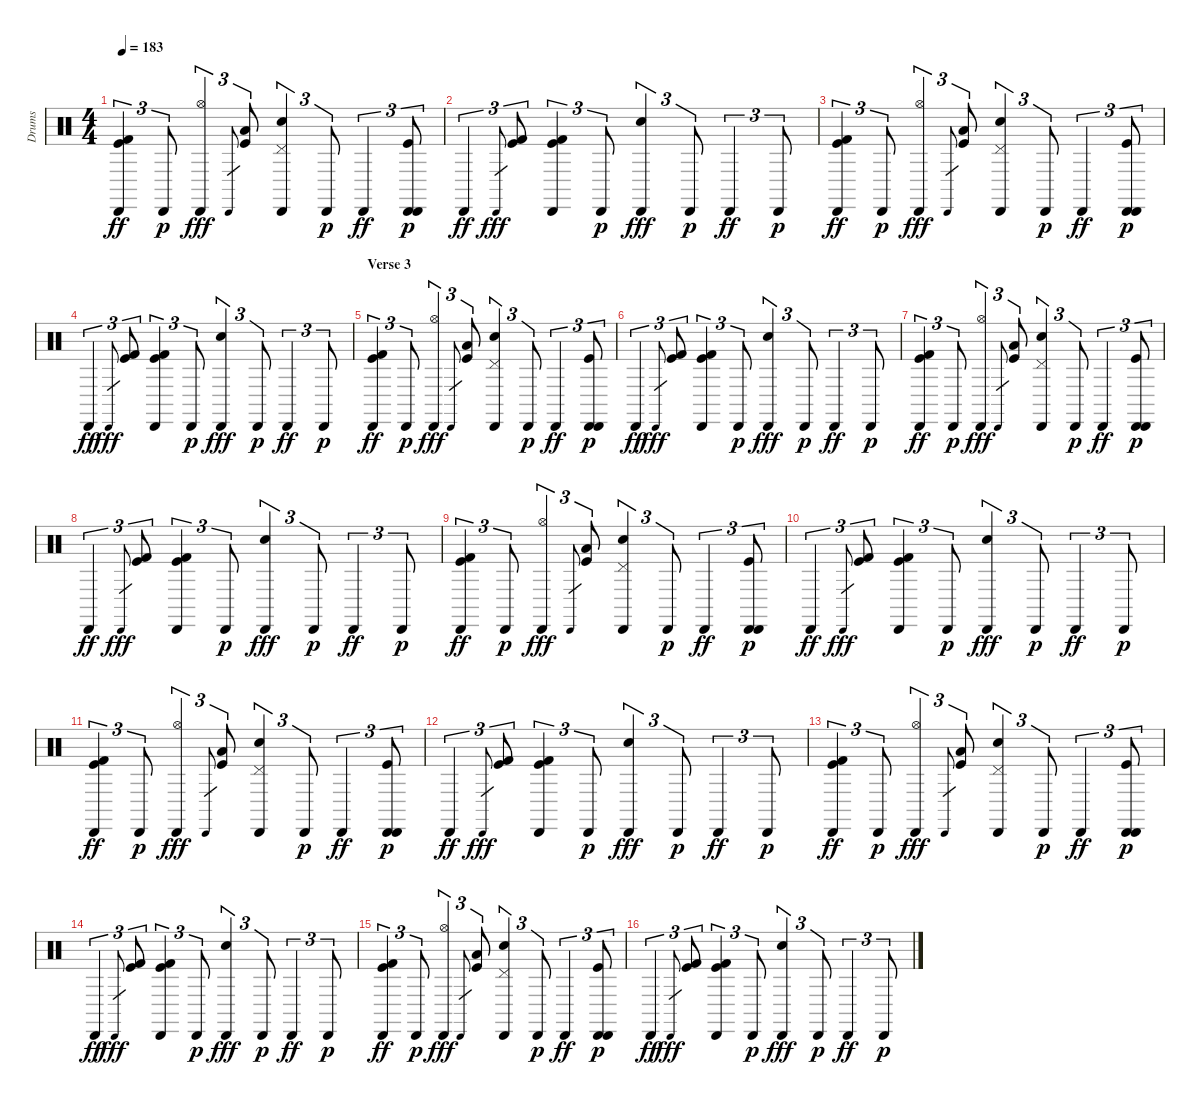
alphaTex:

\track ("Drums" "Drums") {instrument percussion}
\staff {score}
\articulation defaults
\ts (4 4)
\tempo 183
\clef neutral
\ks c
("Kick (hit) 2" "Kick (hit)" "Cabasa (hit)").4{tu (3 2) dy ff} "Cabasa (hit)".8{tu (3 2) dy p} ("Cabasa (hit)" "Hi-Hat (open)").4{tu (3 2) dy fff} "Cabasa (hit)".8{gr} ("Kick (hit)" "Low Floor Tom (hit)").8{tu (3 2)} ("Cabasa (hit)" "Electric Snare (hit)" "Pedal Hi-Hat (hit)").4{tu (3 2)} "Cabasa (hit)".8{tu (3 2) dy p} "Cabasa (hit)".4{tu (3 2) dy ff} ("Cabasa (hit)" "Kick (hit)" "Cabasa (hit)").8{tu (3 2) dy p} |
"Cabasa (hit)".4{tu (3 2) dy ff} "Cabasa (hit)".8{gr dy fff} ("Kick (hit)" "Kick (hit) 2").8{tu (3 2)} ("Cabasa (hit)" "Kick (hit)" "Kick (hit) 2").4{tu (3 2)} "Cabasa (hit)".8{tu (3 2) dy p} ("Cabasa (hit)" "Electric Snare (hit)").4{tu (3 2) dy fff} "Cabasa (hit)".8{tu (3 2) dy p} "Cabasa (hit)".4{tu (3 2) dy ff} "Cabasa (hit)".8{tu (3 2) dy p} |
("Kick (hit) 2" "Kick (hit)" "Cabasa (hit)").4{tu (3 2) dy ff} "Cabasa (hit)".8{tu (3 2) dy p} ("Cabasa (hit)" "Hi-Hat (open)").4{tu (3 2) dy fff} "Cabasa (hit)".8{gr} ("Kick (hit)" "Low Floor Tom (hit)").8{tu (3 2)} ("Cabasa (hit)" "Electric Snare (hit)" "Pedal Hi-Hat (hit)").4{tu (3 2)} "Cabasa (hit)".8{tu (3 2) dy p} "Cabasa (hit)".4{tu (3 2) dy ff} ("Cabasa (hit)" "Kick (hit)" "Cabasa (hit)").8{tu (3 2) dy p} |
"Cabasa (hit)".4{tu (3 2) dy ff} "Cabasa (hit)".8{gr dy fff} ("Kick (hit)" "Kick (hit) 2").8{tu (3 2)} ("Cabasa (hit)" "Kick (hit)" "Kick (hit) 2").4{tu (3 2)} "Cabasa (hit)".8{tu (3 2) dy p} ("Cabasa (hit)" "Electric Snare (hit)").4{tu (3 2) dy fff} "Cabasa (hit)".8{tu (3 2) dy p} "Cabasa (hit)".4{tu (3 2) dy ff} "Cabasa (hit)".8{tu (3 2) dy p} |
\section ("" "Verse 3")
("Kick (hit) 2" "Kick (hit)" "Cabasa (hit)").4{tu (3 2) dy ff} "Cabasa (hit)".8{tu (3 2) dy p} ("Cabasa (hit)" "Hi-Hat (open)").4{tu (3 2) dy fff} "Cabasa (hit)".8{gr} ("Kick (hit)" "Low Floor Tom (hit)").8{tu (3 2)} ("Cabasa (hit)" "Electric Snare (hit)" "Pedal Hi-Hat (hit)").4{tu (3 2)} "Cabasa (hit)".8{tu (3 2) dy p} "Cabasa (hit)".4{tu (3 2) dy ff} ("Cabasa (hit)" "Kick (hit)" "Cabasa (hit)").8{tu (3 2) dy p} |
"Cabasa (hit)".4{tu (3 2) dy ff} "Cabasa (hit)".8{gr dy fff} ("Kick (hit)" "Kick (hit) 2").8{tu (3 2)} ("Cabasa (hit)" "Kick (hit)" "Kick (hit) 2").4{tu (3 2)} "Cabasa (hit)".8{tu (3 2) dy p} ("Cabasa (hit)" "Electric Snare (hit)").4{tu (3 2) dy fff} "Cabasa (hit)".8{tu (3 2) dy p} "Cabasa (hit)".4{tu (3 2) dy ff} "Cabasa (hit)".8{tu (3 2) dy p} |
("Kick (hit) 2" "Kick (hit)" "Cabasa (hit)").4{tu (3 2) dy ff} "Cabasa (hit)".8{tu (3 2) dy p} ("Cabasa (hit)" "Hi-Hat (open)").4{tu (3 2) dy fff} "Cabasa (hit)".8{gr} ("Kick (hit)" "Low Floor Tom (hit)").8{tu (3 2)} ("Cabasa (hit)" "Electric Snare (hit)" "Pedal Hi-Hat (hit)").4{tu (3 2)} "Cabasa (hit)".8{tu (3 2) dy p} "Cabasa (hit)".4{tu (3 2) dy ff} ("Cabasa (hit)" "Kick (hit)" "Cabasa (hit)").8{tu (3 2) dy p} |
"Cabasa (hit)".4{tu (3 2) dy ff} "Cabasa (hit)".8{gr dy fff} ("Kick (hit)" "Kick (hit) 2").8{tu (3 2)} ("Cabasa (hit)" "Kick (hit)" "Kick (hit) 2").4{tu (3 2)} "Cabasa (hit)".8{tu (3 2) dy p} ("Cabasa (hit)" "Electric Snare (hit)").4{tu (3 2) dy fff} "Cabasa (hit)".8{tu (3 2) dy p} "Cabasa (hit)".4{tu (3 2) dy ff} "Cabasa (hit)".8{tu (3 2) dy p} |
("Kick (hit) 2" "Kick (hit)" "Cabasa (hit)").4{tu (3 2) dy ff} "Cabasa (hit)".8{tu (3 2) dy p} ("Cabasa (hit)" "Hi-Hat (open)").4{tu (3 2) dy fff} "Cabasa (hit)".8{gr} ("Kick (hit)" "Low Floor Tom (hit)").8{tu (3 2)} ("Cabasa (hit)" "Electric Snare (hit)" "Pedal Hi-Hat (hit)").4{tu (3 2)} "Cabasa (hit)".8{tu (3 2) dy p} "Cabasa (hit)".4{tu (3 2) dy ff} ("Cabasa (hit)" "Kick (hit)" "Cabasa (hit)").8{tu (3 2) dy p} |
"Cabasa (hit)".4{tu (3 2) dy ff} "Cabasa (hit)".8{gr dy fff} ("Kick (hit)" "Kick (hit) 2").8{tu (3 2)} ("Cabasa (hit)" "Kick (hit)" "Kick (hit) 2").4{tu (3 2)} "Cabasa (hit)".8{tu (3 2) dy p} ("Cabasa (hit)" "Electric Snare (hit)").4{tu (3 2) dy fff} "Cabasa (hit)".8{tu (3 2) dy p} "Cabasa (hit)".4{tu (3 2) dy ff} "Cabasa (hit)".8{tu (3 2) dy p} |
("Kick (hit) 2" "Kick (hit)" "Cabasa (hit)").4{tu (3 2) dy ff} "Cabasa (hit)".8{tu (3 2) dy p} ("Cabasa (hit)" "Hi-Hat (open)").4{tu (3 2) dy fff} "Cabasa (hit)".8{gr} ("Kick (hit)" "Low Floor Tom (hit)").8{tu (3 2)} ("Cabasa (hit)" "Electric Snare (hit)" "Pedal Hi-Hat (hit)").4{tu (3 2)} "Cabasa (hit)".8{tu (3 2) dy p} "Cabasa (hit)".4{tu (3 2) dy ff} ("Cabasa (hit)" "Kick (hit)" "Cabasa (hit)").8{tu (3 2) dy p} |
"Cabasa (hit)".4{tu (3 2) dy ff} "Cabasa (hit)".8{gr dy fff} ("Kick (hit)" "Kick (hit) 2").8{tu (3 2)} ("Cabasa (hit)" "Kick (hit)" "Kick (hit) 2").4{tu (3 2)} "Cabasa (hit)".8{tu (3 2) dy p} ("Cabasa (hit)" "Electric Snare (hit)").4{tu (3 2) dy fff} "Cabasa (hit)".8{tu (3 2) dy p} "Cabasa (hit)".4{tu (3 2) dy ff} "Cabasa (hit)".8{tu (3 2) dy p} |
("Kick (hit) 2" "Kick (hit)" "Cabasa (hit)").4{tu (3 2) dy ff} "Cabasa (hit)".8{tu (3 2) dy p} ("Cabasa (hit)" "Hi-Hat (open)").4{tu (3 2) dy fff} "Cabasa (hit)".8{gr} ("Kick (hit)" "Low Floor Tom (hit)").8{tu (3 2)} ("Cabasa (hit)" "Electric Snare (hit)" "Pedal Hi-Hat (hit)").4{tu (3 2)} "Cabasa (hit)".8{tu (3 2) dy p} "Cabasa (hit)".4{tu (3 2) dy ff} ("Cabasa (hit)" "Kick (hit)" "Cabasa (hit)").8{tu (3 2) dy p} |
"Cabasa (hit)".4{tu (3 2) dy ff} "Cabasa (hit)".8{gr dy fff} ("Kick (hit)" "Kick (hit) 2").8{tu (3 2)} ("Cabasa (hit)" "Kick (hit)" "Kick (hit) 2").4{tu (3 2)} "Cabasa (hit)".8{tu (3 2) dy p} ("Cabasa (hit)" "Electric Snare (hit)").4{tu (3 2) dy fff} "Cabasa (hit)".8{tu (3 2) dy p} "Cabasa (hit)".4{tu (3 2) dy ff} "Cabasa (hit)".8{tu (3 2) dy p} |
("Kick (hit) 2" "Kick (hit)" "Cabasa (hit)").4{tu (3 2) dy ff} "Cabasa (hit)".8{tu (3 2) dy p} ("Cabasa (hit)" "Hi-Hat (open)").4{tu (3 2) dy fff} "Cabasa (hit)".8{gr} ("Kick (hit)" "Low Floor Tom (hit)").8{tu (3 2)} ("Cabasa (hit)" "Electric Snare (hit)" "Pedal Hi-Hat (hit)").4{tu (3 2)} "Cabasa (hit)".8{tu (3 2) dy p} "Cabasa (hit)".4{tu (3 2) dy ff} ("Cabasa (hit)" "Kick (hit)" "Cabasa (hit)").8{tu (3 2) dy p} |
"Cabasa (hit)".4{tu (3 2) dy ff} "Cabasa (hit)".8{gr dy fff} ("Kick (hit)" "Kick (hit) 2").8{tu (3 2)} ("Cabasa (hit)" "Kick (hit)" "Kick (hit) 2").4{tu (3 2)} "Cabasa (hit)".8{tu (3 2) dy p} ("Cabasa (hit)" "Electric Snare (hit)").4{tu (3 2) dy fff} "Cabasa (hit)".8{tu (3 2) dy p} "Cabasa (hit)".4{tu (3 2) dy ff} "Cabasa (hit)".8{tu (3 2) dy p}
